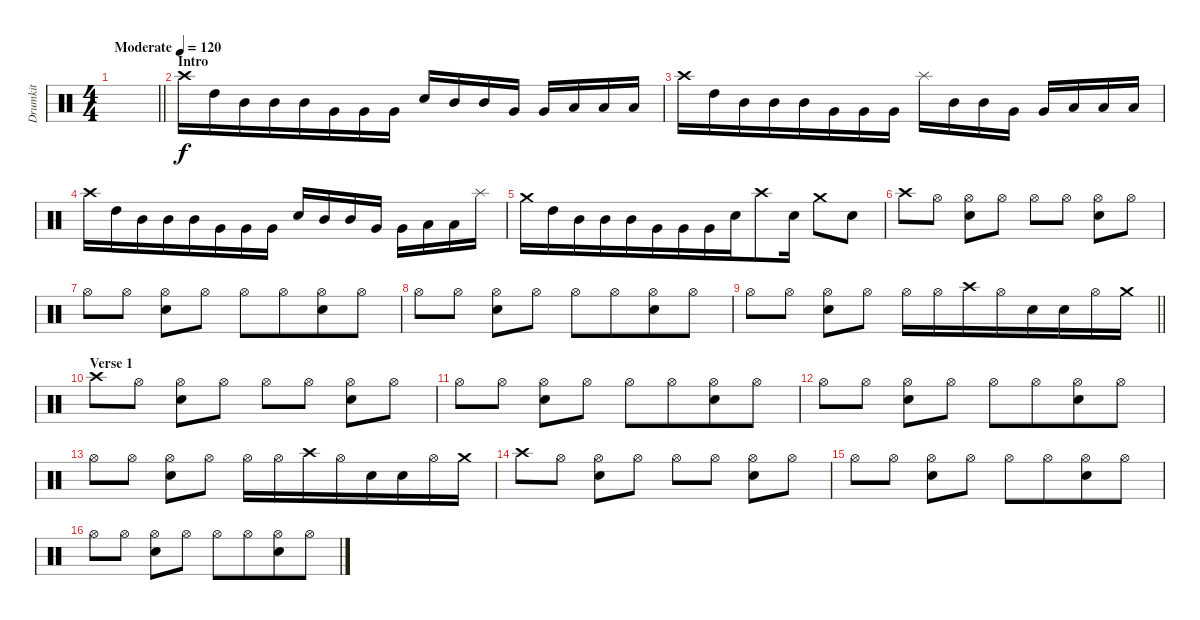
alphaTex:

\track ("Drumkit" "Drumkit") {instrument percussion bank 2}
\staff {score}
\articulation defaults
\ts (4 4)
\tempo (120 "Moderate")
\clef neutral
\barLineRight lightlight
\ks c
|
\section ("" "Intro")
"Crash high (hit)".16 "High Tom (hit)".16{beam merge} "Mid Tom (hit)".16 "Mid Tom (hit)".16{beam merge} "Mid Tom (hit)".16 "Very Low Tom (hit)".16{beam merge} "Very Low Tom (hit)".16 "Very Low Tom (hit)".16 "Electric Snare (hit)".16{beam merge} "Mid Tom (hit)".16 "Mid Tom (hit)".16{beam merge} "Very Low Tom (hit)".16 "Very Low Tom (hit)".16 "Low Floor Tom (hit)".16 "Low Floor Tom (hit)".16 "Low Floor Tom (hit)".16 |
"Crash high (hit)".16 "High Tom (hit)".16{beam merge} "Mid Tom (hit)".16 "Mid Tom (hit)".16{beam merge} "Mid Tom (hit)".16 "Very Low Tom (hit)".16{beam merge} "Very Low Tom (hit)".16 "Very Low Tom (hit)".16 "Splash (hit)".16{beam merge} "Mid Tom (hit)".16 "Mid Tom (hit)".16{beam merge} "Very Low Tom (hit)".16 "Very Low Tom (hit)".16 "Low Floor Tom (hit)".16 "Low Floor Tom (hit)".16 "Low Floor Tom (hit)".16 |
"Crash high (hit)".16 "High Tom (hit)".16{beam merge} "Mid Tom (hit)".16 "Mid Tom (hit)".16{beam merge} "Mid Tom (hit)".16 "Very Low Tom (hit)".16{beam merge} "Very Low Tom (hit)".16 "Very Low Tom (hit)".16 "Electric Snare (hit)".16{beam merge} "Mid Tom (hit)".16 "Mid Tom (hit)".16{beam merge} "Very Low Tom (hit)".16 "Very Low Tom (hit)".16 "Low Floor Tom (hit)".16 "Low Floor Tom (hit)".16 "Splash (hit)".16 |
"Crash medium (hit)".16 "High Tom (hit)".16 "Mid Tom (hit)".16 "Mid Tom (hit)".16{beam merge} "Mid Tom (hit)".16{beam merge} "Very Low Tom (hit)".16{beam merge} "Very Low Tom (hit)".16{beam merge} "Very Low Tom (hit)".16{beam merge} "Electric Snare (hit)".16 "Crash high (hit)".8{beam merge} "Electric Snare (hit)".16 "Crash medium (hit)".8 "Electric Snare (hit)".8 |
"Crash high (hit)".8{beam merge} "Hi-Hat (open)".8 ("Hi-Hat (open)" "Electric Snare (hit)").8 "Hi-Hat (open)".8 "Hi-Hat (open)".8{beam merge} "Hi-Hat (open)".8 ("Hi-Hat (open)" "Electric Snare (hit)").8{beam merge} "Hi-Hat (open)".8 |
"Hi-Hat (open)".8 "Hi-Hat (open)".8 ("Hi-Hat (open)" "Electric Snare (hit)").8 "Hi-Hat (open)".8 "Hi-Hat (open)".8 "Hi-Hat (open)".8{beam merge} ("Hi-Hat (open)" "Electric Snare (hit)").8{beam merge} "Hi-Hat (open)".8 |
"Hi-Hat (open)".8 "Hi-Hat (open)".8 ("Hi-Hat (open)" "Electric Snare (hit)").8 "Hi-Hat (open)".8 "Hi-Hat (open)".8 "Hi-Hat (open)".8{beam merge} ("Hi-Hat (open)" "Electric Snare (hit)").8{beam merge} "Hi-Hat (open)".8 |
\barLineRight lightlight "Hi-Hat (open)".8 "Hi-Hat (open)".8
("Hi-Hat (open)" "Electric Snare (hit)").8 "Hi-Hat (open)".8 "Hi-Hat (open)".16 "Hi-Hat (open)".16{beam merge} "Crash high (hit)".16{beam merge} "Hi-Hat (open)".16{beam merge} "Electric Snare (hit)".16 "Electric Snare (hit)".16 "Hi-Hat (open)".16{beam merge} "Crash medium (hit)".16 |
\section ("" "Verse 1")
"Crash high (hit)".8{beam merge} "Hi-Hat (open)".8 ("Hi-Hat (open)" "Electric Snare (hit)").8 "Hi-Hat (open)".8 "Hi-Hat (open)".8{beam merge} "Hi-Hat (open)".8 ("Hi-Hat (open)" "Electric Snare (hit)").8{beam merge} "Hi-Hat (open)".8 |
"Hi-Hat (open)".8 "Hi-Hat (open)".8 ("Hi-Hat (open)" "Electric Snare (hit)").8 "Hi-Hat (open)".8 "Hi-Hat (open)".8 "Hi-Hat (open)".8{beam merge} ("Hi-Hat (open)" "Electric Snare (hit)").8{beam merge} "Hi-Hat (open)".8 |
"Hi-Hat (open)".8 "Hi-Hat (open)".8 ("Hi-Hat (open)" "Electric Snare (hit)").8 "Hi-Hat (open)".8 "Hi-Hat (open)".8 "Hi-Hat (open)".8{beam merge} ("Hi-Hat (open)" "Electric Snare (hit)").8{beam merge} "Hi-Hat (open)".8 |
"Hi-Hat (open)".8 "Hi-Hat (open)".8 ("Hi-Hat (open)" "Electric Snare (hit)").8 "Hi-Hat (open)".8 "Hi-Hat (open)".16 "Hi-Hat (open)".16{beam merge} "Crash high (hit)".16{beam merge} "Hi-Hat (open)".16{beam merge} "Electric Snare (hit)".16 "Electric Snare (hit)".16 "Hi-Hat (open)".16{beam merge} "Crash medium (hit)".16 |
"Crash high (hit)".8{beam merge} "Hi-Hat (open)".8 ("Hi-Hat (open)" "Electric Snare (hit)").8 "Hi-Hat (open)".8 "Hi-Hat (open)".8{beam merge} "Hi-Hat (open)".8 ("Hi-Hat (open)" "Electric Snare (hit)").8{beam merge} "Hi-Hat (open)".8 |
"Hi-Hat (open)".8 "Hi-Hat (open)".8 ("Hi-Hat (open)" "Electric Snare (hit)").8 "Hi-Hat (open)".8 "Hi-Hat (open)".8 "Hi-Hat (open)".8{beam merge} ("Hi-Hat (open)" "Electric Snare (hit)").8{beam merge} "Hi-Hat (open)".8 |
"Hi-Hat (open)".8 "Hi-Hat (open)".8 ("Hi-Hat (open)" "Electric Snare (hit)").8 "Hi-Hat (open)".8 "Hi-Hat (open)".8 "Hi-Hat (open)".8{beam merge} ("Hi-Hat (open)" "Electric Snare (hit)").8{beam merge} "Hi-Hat (open)".8
